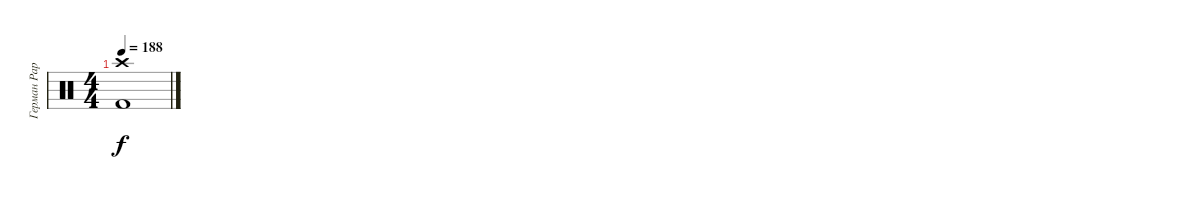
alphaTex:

\track ("Герман Раребелл, ударные" "Герман Рар") {instrument percussion}
\staff {score}
\articulation defaults
\ts (4 4)
\tempo 188
\clef neutral
\ks c
("Kick (hit) 2" "Crash high (hit)").1{dy f}
